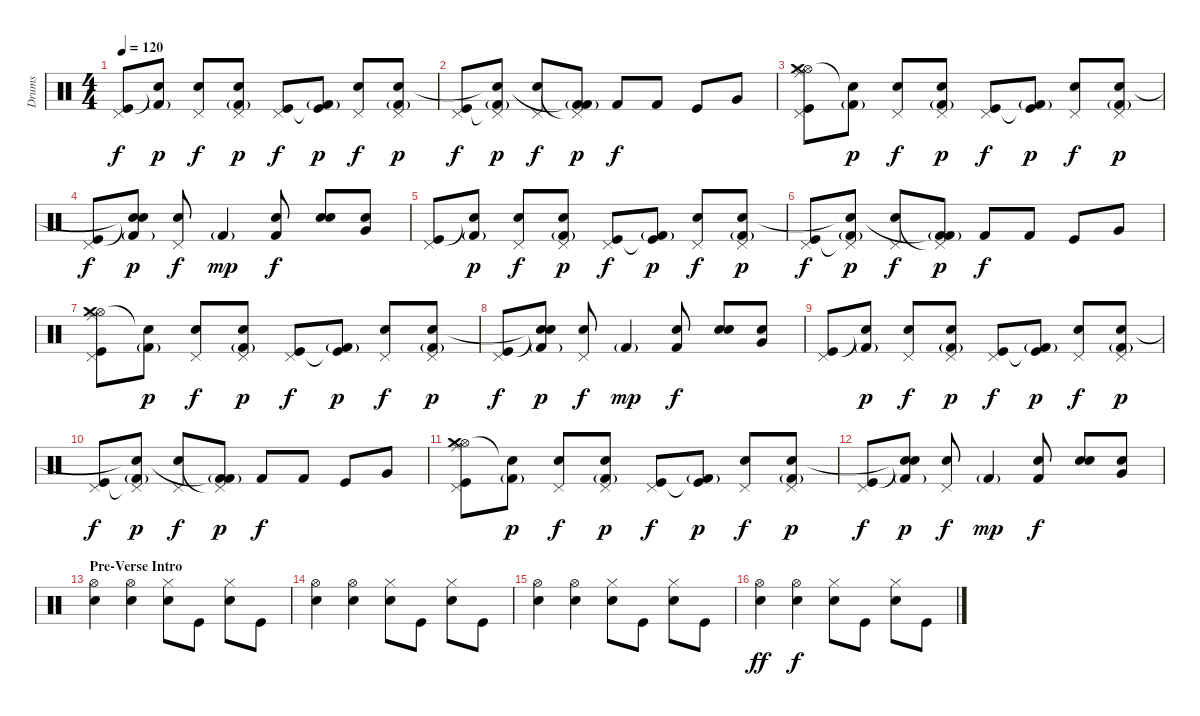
\track ("Drums" "Drums") {instrument percussion}
\staff {score}
\articulation defaults
\ts (4 4)
\tempo 120
\clef neutral
\ks c
("Pedal Hi-Hat (hit)" "Kick (hit)").8{dy f} ("Kick (hit) 2"{g} "Snare (hit) 2"{t}).8{dy p} ("Pedal Hi-Hat (hit)" "Snare (hit) 2").8{dy f} ("Kick (hit) 2"{g} "Pedal Hi-Hat (hit)" "Snare (hit) 2").8{dy p} ("Pedal Hi-Hat (hit)" "Kick (hit)").8{dy f} ("Kick (hit) 2"{g} "Kick (hit)"{t}).8{dy p} ("Pedal Hi-Hat (hit)" "Snare (hit) 2").8{dy f} ("Kick (hit) 2"{g} "Pedal Hi-Hat (hit)" "Snare (hit) 2").8{dy p} |
("Pedal Hi-Hat (hit)" "Kick (hit)").8{dy f} ("Kick (hit) 2"{g} "Pedal Hi-Hat (hit)"{t} "Snare (hit) 2"{t}).8{dy p} ("Pedal Hi-Hat (hit)" "Snare (hit) 2").8{dy f} ("Kick (hit) 2"{g} "Pedal Hi-Hat (hit)"{t} "Kick (hit) 2"{t}).8{dy p} "Kick (hit) 2".8{dy f} "Kick (hit) 2".8 "Kick (hit)".8 "Very Low Tom (hit)".8 |
("Ride (middle)" "Hi-Hat (open)" "Crash medium (hit)" "Pedal Hi-Hat (hit)" "Kick (hit)").8 ("Kick (hit) 2"{g} "Snare (hit) 2"{t}).8{dy p} ("Pedal Hi-Hat (hit)" "Snare (hit) 2").8{dy f} ("Kick (hit) 2"{g} "Pedal Hi-Hat (hit)" "Snare (hit) 2").8{dy p} ("Pedal Hi-Hat (hit)" "Kick (hit)").8{dy f} ("Kick (hit) 2"{g} "Kick (hit)"{t}).8{dy p} ("Pedal Hi-Hat (hit)" "Snare (hit) 2").8{dy f} ("Kick (hit) 2"{g} "Pedal Hi-Hat (hit)" "Snare (hit) 2").8{dy p} |
("Pedal Hi-Hat (hit)" "Kick (hit)").8{dy f} ("Kick (hit) 2"{g} "Snare (hit)"{t} "Snare (hit)"{t}).8{dy p} ("Pedal Hi-Hat (hit)" "Snare (hit) 2").8{dy f} "Kick (hit) 2"{g}.4{dy mp} ("Kick (hit) 2" "Snare (hit) 2").8{dy f} ("Electric Snare (hit)" "Snare (hit) 2").8 ("Very Low Tom (hit)" "Snare (hit) 2").8 |
("Pedal Hi-Hat (hit)" "Kick (hit)").8 ("Kick (hit) 2"{g} "Snare (hit) 2"{t}).8{dy p} ("Pedal Hi-Hat (hit)" "Snare (hit) 2").8{dy f} ("Kick (hit) 2"{g} "Pedal Hi-Hat (hit)" "Snare (hit) 2").8{dy p} ("Pedal Hi-Hat (hit)" "Kick (hit)").8{dy f} ("Kick (hit) 2"{g} "Kick (hit)"{t}).8{dy p} ("Pedal Hi-Hat (hit)" "Snare (hit) 2").8{dy f} ("Kick (hit) 2"{g} "Pedal Hi-Hat (hit)" "Snare (hit) 2").8{dy p} |
("Pedal Hi-Hat (hit)" "Kick (hit)").8{dy f} ("Kick (hit) 2"{g} "Pedal Hi-Hat (hit)"{t} "Snare (hit) 2"{t}).8{dy p} ("Pedal Hi-Hat (hit)" "Snare (hit) 2").8{dy f} ("Kick (hit) 2"{g} "Pedal Hi-Hat (hit)"{t} "Kick (hit) 2"{t}).8{dy p} "Kick (hit) 2".8{dy f} "Kick (hit) 2".8 "Kick (hit)".8 "Very Low Tom (hit)".8 |
("Ride (middle)" "Hi-Hat (open)" "Crash medium (hit)" "Pedal Hi-Hat (hit)" "Kick (hit)").8 ("Kick (hit) 2"{g} "Snare (hit) 2"{t}).8{dy p} ("Pedal Hi-Hat (hit)" "Snare (hit) 2").8{dy f} ("Kick (hit) 2"{g} "Pedal Hi-Hat (hit)" "Snare (hit) 2").8{dy p} ("Pedal Hi-Hat (hit)" "Kick (hit)").8{dy f} ("Kick (hit) 2"{g} "Kick (hit)"{t}).8{dy p} ("Pedal Hi-Hat (hit)" "Snare (hit) 2").8{dy f} ("Kick (hit) 2"{g} "Pedal Hi-Hat (hit)" "Snare (hit) 2").8{dy p} |
("Pedal Hi-Hat (hit)" "Kick (hit)").8{dy f} ("Kick (hit) 2"{g} "Snare (hit)"{t} "Snare (hit)"{t}).8{dy p} ("Pedal Hi-Hat (hit)" "Snare (hit) 2").8{dy f} "Kick (hit) 2"{g}.4{dy mp} ("Kick (hit) 2" "Snare (hit) 2").8{dy f} ("Electric Snare (hit)" "Snare (hit) 2").8 ("Very Low Tom (hit)" "Snare (hit) 2").8 |
("Pedal Hi-Hat (hit)" "Kick (hit)").8 ("Kick (hit) 2"{g} "Snare (hit) 2"{t}).8{dy p} ("Pedal Hi-Hat (hit)" "Snare (hit) 2").8{dy f} ("Kick (hit) 2"{g} "Pedal Hi-Hat (hit)" "Snare (hit) 2").8{dy p} ("Pedal Hi-Hat (hit)" "Kick (hit)").8{dy f} ("Kick (hit) 2"{g} "Kick (hit)"{t}).8{dy p} ("Pedal Hi-Hat (hit)" "Snare (hit) 2").8{dy f} ("Kick (hit) 2"{g} "Pedal Hi-Hat (hit)" "Snare (hit) 2").8{dy p} |
("Pedal Hi-Hat (hit)" "Kick (hit)").8{dy f} ("Kick (hit) 2"{g} "Pedal Hi-Hat (hit)"{t} "Snare (hit) 2"{t}).8{dy p} ("Pedal Hi-Hat (hit)" "Snare (hit) 2").8{dy f} ("Kick (hit) 2"{g} "Pedal Hi-Hat (hit)"{t} "Kick (hit) 2"{t}).8{dy p} "Kick (hit) 2".8{dy f} "Kick (hit) 2".8 "Kick (hit)".8 "Very Low Tom (hit)".8 |
("Ride (middle)" "Hi-Hat (open)" "Crash medium (hit)" "Pedal Hi-Hat (hit)" "Kick (hit)").8 ("Kick (hit) 2"{g} "Snare (hit) 2"{t}).8{dy p} ("Pedal Hi-Hat (hit)" "Snare (hit) 2").8{dy f} ("Kick (hit) 2"{g} "Pedal Hi-Hat (hit)" "Snare (hit) 2").8{dy p} ("Pedal Hi-Hat (hit)" "Kick (hit)").8{dy f} ("Kick (hit) 2"{g} "Kick (hit)"{t}).8{dy p} ("Pedal Hi-Hat (hit)" "Snare (hit) 2").8{dy f} ("Kick (hit) 2"{g} "Pedal Hi-Hat (hit)" "Snare (hit) 2").8{dy p} |
("Pedal Hi-Hat (hit)" "Kick (hit)").8{dy f} ("Kick (hit) 2"{g} "Snare (hit)"{t} "Snare (hit)"{t}).8{dy p} ("Pedal Hi-Hat (hit)" "Snare (hit) 2").8{dy f} "Kick (hit) 2"{g}.4{dy mp} ("Kick (hit) 2" "Snare (hit) 2").8{dy f} ("Electric Snare (hit)" "Snare (hit) 2").8 ("Very Low Tom (hit)" "Snare (hit) 2").8 |
\section ("" "Pre-Verse Intro")
("Hi-Hat (open)" "Electric Snare (hit)").4 ("Hi-Hat (open)" "Electric Snare (hit)").4 ("Hi-Hat (closed)" "Electric Snare (hit)").8 "Kick (hit)".8 ("Hi-Hat (closed)" "Electric Snare (hit)").8 "Kick (hit)".8 |
("Hi-Hat (open)" "Electric Snare (hit)").4 ("Hi-Hat (open)" "Electric Snare (hit)").4 ("Hi-Hat (closed)" "Electric Snare (hit)").8 "Kick (hit)".8 ("Hi-Hat (closed)" "Electric Snare (hit)").8 "Kick (hit)".8 |
("Hi-Hat (open)" "Electric Snare (hit)").4 ("Hi-Hat (open)" "Electric Snare (hit)").4 ("Hi-Hat (closed)" "Electric Snare (hit)").8 "Kick (hit)".8 ("Hi-Hat (closed)" "Electric Snare (hit)").8 "Kick (hit)".8 |
("Hi-Hat (open)" "Electric Snare (hit)").4{dy ff} ("Hi-Hat (open)" "Electric Snare (hit)").4{dy f} ("Hi-Hat (closed)" "Electric Snare (hit)").8 "Kick (hit)".8 ("Hi-Hat (closed)" "Electric Snare (hit)").8 "Kick (hit)".8
